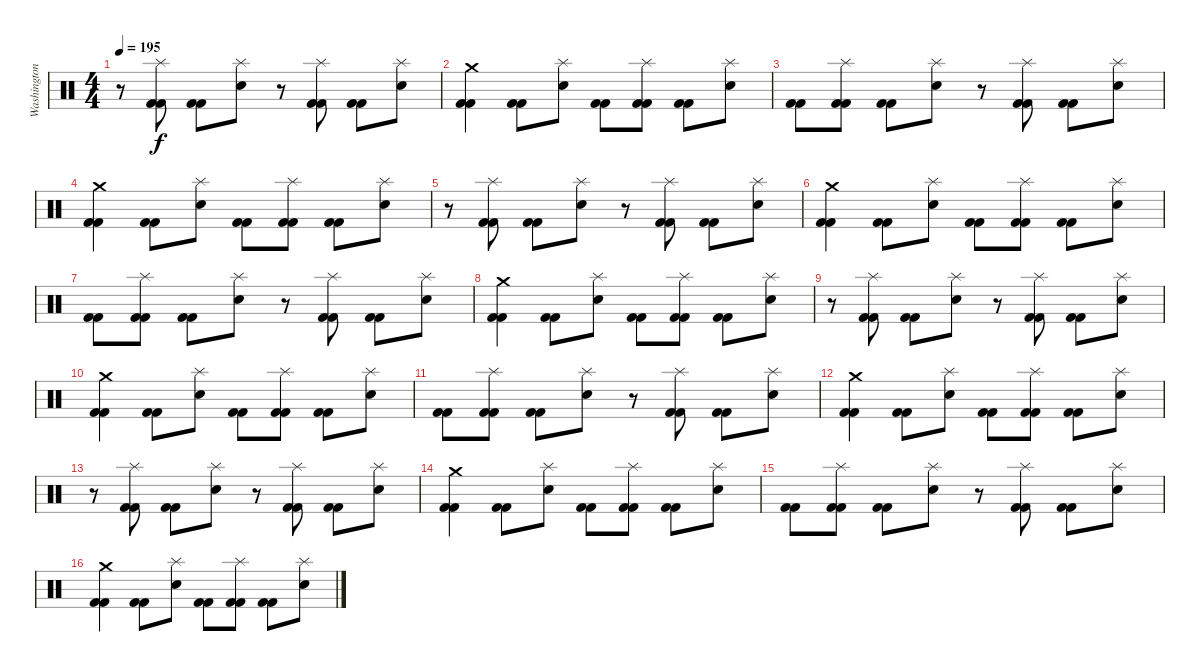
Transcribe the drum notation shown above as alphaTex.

\track ("Washington" "Washington") {solo instrument percussion}
\staff {score}
\articulation defaults
\ts (4 4)
\tempo 195
\clef neutral
\ks c
r.8{dy f} ("Splash (hit)" "Kick (hit) 2" "Kick (hit) 2").8 ("Kick (hit) 2" "Kick (hit) 2").8 ("Splash (hit)" "Electric Snare (hit)").8 r.8 ("Splash (hit)" "Kick (hit) 2" "Kick (hit) 2").8 ("Kick (hit) 2" "Kick (hit) 2").8 ("Splash (hit)" "Electric Snare (hit)").8 |
("Crash medium (hit)" "Kick (hit) 2" "Kick (hit) 2").4 ("Kick (hit) 2" "Kick (hit) 2").8 ("Splash (hit)" "Electric Snare (hit)").8 ("Kick (hit) 2" "Kick (hit) 2").8 ("Splash (hit)" "Kick (hit) 2" "Kick (hit) 2").8 ("Kick (hit) 2" "Kick (hit) 2").8 ("Splash (hit)" "Electric Snare (hit)").8 |
("Kick (hit) 2" "Kick (hit) 2").8 ("Splash (hit)" "Kick (hit) 2" "Kick (hit) 2").8 ("Kick (hit) 2" "Kick (hit) 2").8 ("Splash (hit)" "Electric Snare (hit)").8 r.8 ("Splash (hit)" "Kick (hit) 2" "Kick (hit) 2").8 ("Kick (hit) 2" "Kick (hit) 2").8 ("Splash (hit)" "Electric Snare (hit)").8 |
("Crash medium (hit)" "Kick (hit) 2" "Kick (hit) 2").4 ("Kick (hit) 2" "Kick (hit) 2").8 ("Splash (hit)" "Electric Snare (hit)").8 ("Kick (hit) 2" "Kick (hit) 2").8 ("Splash (hit)" "Kick (hit) 2" "Kick (hit) 2").8 ("Kick (hit) 2" "Kick (hit) 2").8 ("Splash (hit)" "Electric Snare (hit)").8 |
r.8 ("Splash (hit)" "Kick (hit) 2" "Kick (hit) 2").8 ("Kick (hit) 2" "Kick (hit) 2").8 ("Splash (hit)" "Electric Snare (hit)").8 r.8 ("Splash (hit)" "Kick (hit) 2" "Kick (hit) 2").8 ("Kick (hit) 2" "Kick (hit) 2").8 ("Splash (hit)" "Electric Snare (hit)").8 |
("Crash medium (hit)" "Kick (hit) 2" "Kick (hit) 2").4 ("Kick (hit) 2" "Kick (hit) 2").8 ("Splash (hit)" "Electric Snare (hit)").8 ("Kick (hit) 2" "Kick (hit) 2").8 ("Splash (hit)" "Kick (hit) 2" "Kick (hit) 2").8 ("Kick (hit) 2" "Kick (hit) 2").8 ("Splash (hit)" "Electric Snare (hit)").8 |
("Kick (hit) 2" "Kick (hit) 2").8 ("Splash (hit)" "Kick (hit) 2" "Kick (hit) 2").8 ("Kick (hit) 2" "Kick (hit) 2").8 ("Splash (hit)" "Electric Snare (hit)").8 r.8 ("Splash (hit)" "Kick (hit) 2" "Kick (hit) 2").8 ("Kick (hit) 2" "Kick (hit) 2").8 ("Splash (hit)" "Electric Snare (hit)").8 |
("Crash medium (hit)" "Kick (hit) 2" "Kick (hit) 2").4 ("Kick (hit) 2" "Kick (hit) 2").8 ("Splash (hit)" "Electric Snare (hit)").8 ("Kick (hit) 2" "Kick (hit) 2").8 ("Splash (hit)" "Kick (hit) 2" "Kick (hit) 2").8 ("Kick (hit) 2" "Kick (hit) 2").8 ("Splash (hit)" "Electric Snare (hit)").8 |
r.8 ("Splash (hit)" "Kick (hit) 2" "Kick (hit) 2").8 ("Kick (hit) 2" "Kick (hit) 2").8 ("Splash (hit)" "Electric Snare (hit)").8 r.8 ("Splash (hit)" "Kick (hit) 2" "Kick (hit) 2").8 ("Kick (hit) 2" "Kick (hit) 2").8 ("Splash (hit)" "Electric Snare (hit)").8 |
("Crash medium (hit)" "Kick (hit) 2" "Kick (hit) 2").4 ("Kick (hit) 2" "Kick (hit) 2").8 ("Splash (hit)" "Electric Snare (hit)").8 ("Kick (hit) 2" "Kick (hit) 2").8 ("Splash (hit)" "Kick (hit) 2" "Kick (hit) 2").8 ("Kick (hit) 2" "Kick (hit) 2").8 ("Splash (hit)" "Electric Snare (hit)").8 |
("Kick (hit) 2" "Kick (hit) 2").8 ("Splash (hit)" "Kick (hit) 2" "Kick (hit) 2").8 ("Kick (hit) 2" "Kick (hit) 2").8 ("Splash (hit)" "Electric Snare (hit)").8 r.8 ("Splash (hit)" "Kick (hit) 2" "Kick (hit) 2").8 ("Kick (hit) 2" "Kick (hit) 2").8 ("Splash (hit)" "Electric Snare (hit)").8 |
("Crash medium (hit)" "Kick (hit) 2" "Kick (hit) 2").4 ("Kick (hit) 2" "Kick (hit) 2").8 ("Splash (hit)" "Electric Snare (hit)").8 ("Kick (hit) 2" "Kick (hit) 2").8 ("Splash (hit)" "Kick (hit) 2" "Kick (hit) 2").8 ("Kick (hit) 2" "Kick (hit) 2").8 ("Splash (hit)" "Electric Snare (hit)").8 |
r.8 ("Splash (hit)" "Kick (hit) 2" "Kick (hit) 2").8 ("Kick (hit) 2" "Kick (hit) 2").8 ("Splash (hit)" "Electric Snare (hit)").8 r.8 ("Splash (hit)" "Kick (hit) 2" "Kick (hit) 2").8 ("Kick (hit) 2" "Kick (hit) 2").8 ("Splash (hit)" "Electric Snare (hit)").8 |
("Crash medium (hit)" "Kick (hit) 2" "Kick (hit) 2").4 ("Kick (hit) 2" "Kick (hit) 2").8 ("Splash (hit)" "Electric Snare (hit)").8 ("Kick (hit) 2" "Kick (hit) 2").8 ("Splash (hit)" "Kick (hit) 2" "Kick (hit) 2").8 ("Kick (hit) 2" "Kick (hit) 2").8 ("Splash (hit)" "Electric Snare (hit)").8 |
("Kick (hit) 2" "Kick (hit) 2").8 ("Splash (hit)" "Kick (hit) 2" "Kick (hit) 2").8 ("Kick (hit) 2" "Kick (hit) 2").8 ("Splash (hit)" "Electric Snare (hit)").8 r.8 ("Splash (hit)" "Kick (hit) 2" "Kick (hit) 2").8 ("Kick (hit) 2" "Kick (hit) 2").8 ("Splash (hit)" "Electric Snare (hit)").8 |
("Crash medium (hit)" "Kick (hit) 2" "Kick (hit) 2").4 ("Kick (hit) 2" "Kick (hit) 2").8 ("Splash (hit)" "Electric Snare (hit)").8 ("Kick (hit) 2" "Kick (hit) 2").8 ("Splash (hit)" "Kick (hit) 2" "Kick (hit) 2").8 ("Kick (hit) 2" "Kick (hit) 2").8 ("Splash (hit)" "Electric Snare (hit)").8
